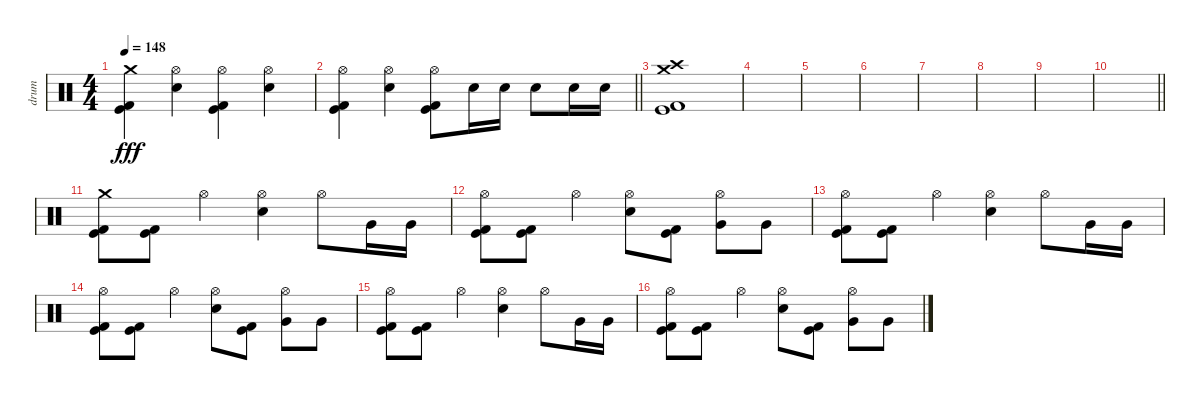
\track ("drum" "drum") {instrument percussion}
\staff {score}
\articulation defaults
\ts (4 4)
\tempo 148
\clef neutral
\ks c
("Crash medium (hit)" "Kick (hit)" "Kick (hit) 2").4{dy fff} ("Snare (hit) 2" "Hi-Hat (open)").4 ("Hi-Hat (open)" "Kick (hit)" "Kick (hit) 2").4 ("Snare (hit) 2" "Hi-Hat (open)").4 |
\barLineRight lightlight
("Hi-Hat (open)" "Kick (hit)" "Kick (hit) 2").4 ("Snare (hit) 2" "Hi-Hat (open)").4 ("Hi-Hat (open)" "Kick (hit)" "Kick (hit) 2").8 "Snare (hit) 2".16 "Snare (hit) 2".16 "Snare (hit) 2".8 "Snare (hit) 2".16 "Snare (hit) 2".16 |
\section ("" "")
("Crash medium (hit)" "Crash high (hit)" "Kick (hit)" "Kick (hit) 2").1 |
|
|
|
|
|
|
\barLineRight lightlight
|
("Crash medium (hit)" "Kick (hit)" "Kick (hit) 2").8 ("Kick (hit)" "Kick (hit) 2").8 "Hi-Hat (open)".4 ("Snare (hit) 2" "Hi-Hat (open)").4 "Hi-Hat (open)".8 "Very Low Tom (hit)".16 "Very Low Tom (hit)".16 |
("Hi-Hat (open)" "Kick (hit)" "Kick (hit) 2").8 ("Kick (hit)" "Kick (hit) 2").8 "Hi-Hat (open)".4 ("Snare (hit) 2" "Hi-Hat (open)").8 ("Kick (hit)" "Kick (hit) 2").8 ("Very Low Tom (hit)" "Hi-Hat (open)").8 "Very Low Tom (hit)".8 |
("Hi-Hat (open)" "Kick (hit)" "Kick (hit) 2").8 ("Kick (hit)" "Kick (hit) 2").8 "Hi-Hat (open)".4 ("Snare (hit) 2" "Hi-Hat (open)").4 "Hi-Hat (open)".8 "Very Low Tom (hit)".16 "Very Low Tom (hit)".16 |
("Hi-Hat (open)" "Kick (hit)" "Kick (hit) 2").8 ("Kick (hit)" "Kick (hit) 2").8 "Hi-Hat (open)".4 ("Snare (hit) 2" "Hi-Hat (open)").8 ("Kick (hit)" "Kick (hit) 2").8 ("Very Low Tom (hit)" "Hi-Hat (open)").8 "Very Low Tom (hit)".8 |
("Hi-Hat (open)" "Kick (hit)" "Kick (hit) 2").8 ("Kick (hit)" "Kick (hit) 2").8 "Hi-Hat (open)".4 ("Snare (hit) 2" "Hi-Hat (open)").4 "Hi-Hat (open)".8 "Very Low Tom (hit)".16 "Very Low Tom (hit)".16 |
("Hi-Hat (open)" "Kick (hit)" "Kick (hit) 2").8 ("Kick (hit)" "Kick (hit) 2").8 "Hi-Hat (open)".4 ("Snare (hit) 2" "Hi-Hat (open)").8 ("Kick (hit)" "Kick (hit) 2").8 ("Very Low Tom (hit)" "Hi-Hat (open)").8 "Very Low Tom (hit)".8
